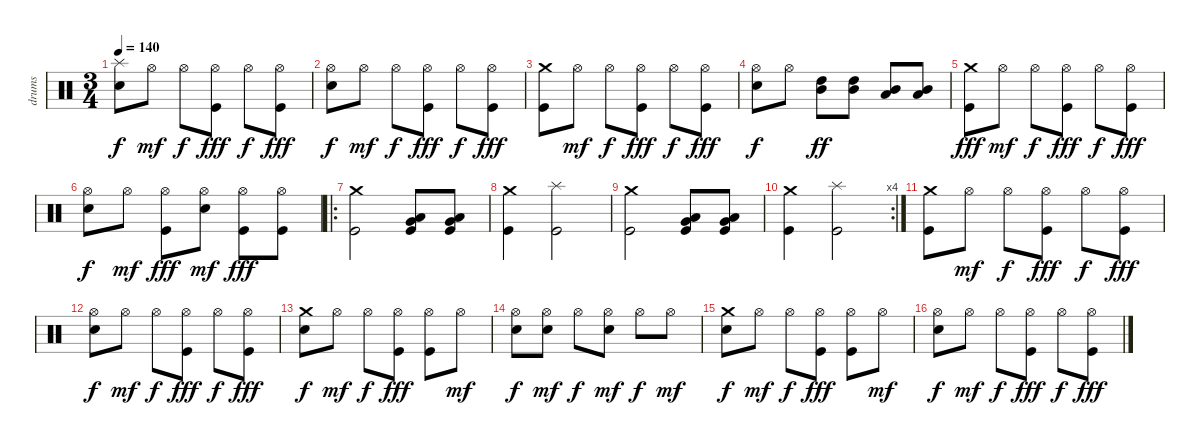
\track ("drums" "drums") {instrument percussion}
\staff {score}
\articulation defaults
\ts (3 4)
\tempo 140
\clef neutral
\ks c
("Splash (hit)" "Snare (hit) 2").8{dy f} "Hi-Hat (open)".8{dy mf} "Hi-Hat (open)".8{dy f} ("Hi-Hat (open)" "Kick (hit)").8{dy fff} "Hi-Hat (open)".8{dy f} ("Hi-Hat (open)" "Kick (hit)").8{dy fff} |
("Hi-Hat (open)" "Snare (hit) 2").8{dy f} "Hi-Hat (open)".8{dy mf} "Hi-Hat (open)".8{dy f} ("Hi-Hat (open)" "Kick (hit)").8{dy fff} "Hi-Hat (open)".8{dy f} ("Hi-Hat (open)" "Kick (hit)").8{dy fff} |
("Crash medium (hit)" "Kick (hit)").8 "Hi-Hat (open)".8{dy mf} "Hi-Hat (open)".8{dy f} ("Hi-Hat (open)" "Kick (hit)").8{dy fff} "Hi-Hat (open)".8{dy f} ("Hi-Hat (open)" "Kick (hit)").8{dy fff} |
("Hi-Hat (open)" "Snare (hit) 2").8{dy f} "Hi-Hat (open)".8 ("High Tom (hit)" "Mid Tom (hit)").8{dy ff} ("High Tom (hit)" "Mid Tom (hit)").8 ("Mid Tom (hit)" "Low Tom (hit)").8 ("Mid Tom (hit)" "Low Tom (hit)").8 |
("Crash medium (hit)" "Kick (hit)").8{dy fff} "Hi-Hat (open)".8{dy mf} "Hi-Hat (open)".8{dy f} ("Hi-Hat (open)" "Kick (hit)").8{dy fff} "Hi-Hat (open)".8{dy f} ("Hi-Hat (open)" "Kick (hit)").8{dy fff} |
("Hi-Hat (open)" "Snare (hit) 2").8{dy f} "Hi-Hat (open)".8{dy mf} ("Hi-Hat (open)" "Kick (hit)").8{dy fff} ("Hi-Hat (open)" "Snare (hit) 2").8{dy mf} ("Hi-Hat (open)" "Kick (hit)").8{dy fff} ("Hi-Hat (open)" "Kick (hit)").8 |
\ro
("Crash medium (hit)" "Kick (hit)").2 ("Very Low Tom (hit)" "Low Tom (hit)" "Kick (hit)").8 ("Very Low Tom (hit)" "Low Tom (hit)" "Kick (hit)").8 |
("Crash medium (hit)" "Kick (hit)").4 ("Splash (hit)" "Kick (hit)").2 |
("Crash medium (hit)" "Kick (hit)").2 ("Very Low Tom (hit)" "Low Tom (hit)" "Kick (hit)").8 ("Very Low Tom (hit)" "Low Tom (hit)" "Kick (hit)").8 |
\rc 4
("Crash medium (hit)" "Kick (hit)").4 ("Splash (hit)" "Kick (hit)").2 |
("Crash medium (hit)" "Kick (hit)").8 "Hi-Hat (open)".8{dy mf} "Hi-Hat (open)".8{dy f} ("Hi-Hat (open)" "Kick (hit)").8{dy fff} "Hi-Hat (open)".8{dy f} ("Hi-Hat (open)" "Kick (hit)").8{dy fff} |
("Hi-Hat (open)" "Snare (hit) 2").8{dy f} "Hi-Hat (open)".8{dy mf} "Hi-Hat (open)".8{dy f} ("Hi-Hat (open)" "Kick (hit)").8{dy fff} "Hi-Hat (open)".8{dy f} ("Hi-Hat (open)" "Kick (hit)").8{dy fff} |
("Crash medium (hit)" "Snare (hit) 2").8{dy f} "Hi-Hat (open)".8{dy mf} "Hi-Hat (open)".8{dy f} ("Hi-Hat (open)" "Kick (hit)").8{dy fff} ("Hi-Hat (open)" "Kick (hit)").8 "Hi-Hat (open)".8{dy mf} |
("Hi-Hat (open)" "Snare (hit) 2").8{dy f} ("Hi-Hat (open)" "Snare (hit) 2").8{dy mf} "Hi-Hat (open)".8{dy f} ("Hi-Hat (open)" "Snare (hit) 2").8{dy mf} "Hi-Hat (open)".8{dy f} "Hi-Hat (open)".8{dy mf} |
("Crash medium (hit)" "Snare (hit) 2").8{dy f} "Hi-Hat (open)".8{dy mf} "Hi-Hat (open)".8{dy f} ("Hi-Hat (open)" "Kick (hit)").8{dy fff} ("Hi-Hat (open)" "Kick (hit)").8 "Hi-Hat (open)".8{dy mf} |
("Hi-Hat (open)" "Snare (hit) 2").8{dy f} "Hi-Hat (open)".8{dy mf} "Hi-Hat (open)".8{dy f} ("Hi-Hat (open)" "Kick (hit)").8{dy fff} "Hi-Hat (open)".8{dy f} ("Hi-Hat (open)" "Kick (hit)").8{dy fff}
